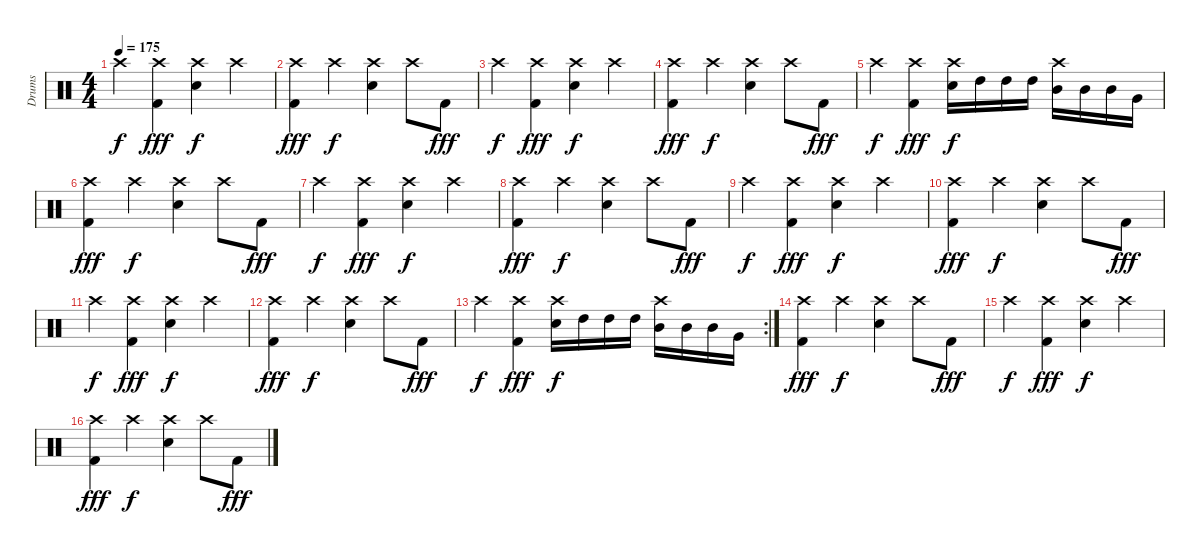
\track ("Drums" "Drums") {instrument percussion}
\staff {score}
\articulation defaults
\ts (4 4)
\tempo 175
\clef neutral
\ks c "Crash high (hit)".4{dy f}
("Crash high (hit)" "Kick (hit) 2").4{dy fff} ("Crash high (hit)" "Electric Snare (hit)").4{dy f} "Crash high (hit)".4 |
("Crash high (hit)" "Kick (hit) 2").4{dy fff} "Crash high (hit)".4{dy f} ("Crash high (hit)" "Electric Snare (hit)").4 "Crash high (hit)".8 "Kick (hit) 2".8{dy fff} |
"Crash high (hit)".4{dy f} ("Crash high (hit)" "Kick (hit) 2").4{dy fff} ("Crash high (hit)" "Electric Snare (hit)").4{dy f} "Crash high (hit)".4 |
("Crash high (hit)" "Kick (hit) 2").4{dy fff} "Crash high (hit)".4{dy f} ("Crash high (hit)" "Electric Snare (hit)").4 "Crash high (hit)".8 "Kick (hit) 2".8{dy fff} |
"Crash high (hit)".4{dy f} ("Crash high (hit)" "Kick (hit) 2").4{dy fff} ("Crash high (hit)" "Electric Snare (hit)").16{dy f} "High Tom (hit)".16 "High Tom (hit)".16 "High Tom (hit)".16 ("Crash high (hit)" "Mid Tom (hit)").16 "Mid Tom (hit)".16 "Mid Tom (hit)".16 "Very Low Tom (hit)".16 |
("Crash high (hit)" "Kick (hit) 2").4{dy fff} "Crash high (hit)".4{dy f} ("Crash high (hit)" "Electric Snare (hit)").4 "Crash high (hit)".8 "Kick (hit) 2".8{dy fff} |
"Crash high (hit)".4{dy f} ("Crash high (hit)" "Kick (hit) 2").4{dy fff} ("Crash high (hit)" "Electric Snare (hit)").4{dy f} "Crash high (hit)".4 |
("Crash high (hit)" "Kick (hit) 2").4{dy fff} "Crash high (hit)".4{dy f} ("Crash high (hit)" "Electric Snare (hit)").4 "Crash high (hit)".8 "Kick (hit) 2".8{dy fff} |
"Crash high (hit)".4{dy f} ("Crash high (hit)" "Kick (hit) 2").4{dy fff} ("Crash high (hit)" "Electric Snare (hit)").4{dy f} "Crash high (hit)".4 |
("Crash high (hit)" "Kick (hit) 2").4{dy fff} "Crash high (hit)".4{dy f} ("Crash high (hit)" "Electric Snare (hit)").4 "Crash high (hit)".8 "Kick (hit) 2".8{dy fff} |
"Crash high (hit)".4{dy f} ("Crash high (hit)" "Kick (hit) 2").4{dy fff} ("Crash high (hit)" "Electric Snare (hit)").4{dy f} "Crash high (hit)".4 |
("Crash high (hit)" "Kick (hit) 2").4{dy fff} "Crash high (hit)".4{dy f} ("Crash high (hit)" "Electric Snare (hit)").4 "Crash high (hit)".8 "Kick (hit) 2".8{dy fff} |
\rc 2 "Crash high (hit)".4{dy f}
("Crash high (hit)" "Kick (hit) 2").4{dy fff} ("Crash high (hit)" "Electric Snare (hit)").16{dy f} "High Tom (hit)".16 "High Tom (hit)".16 "High Tom (hit)".16 ("Crash high (hit)" "Mid Tom (hit)").16 "Mid Tom (hit)".16 "Mid Tom (hit)".16 "Very Low Tom (hit)".16 |
("Crash high (hit)" "Kick (hit) 2").4{dy fff} "Crash high (hit)".4{dy f} ("Crash high (hit)" "Electric Snare (hit)").4 "Crash high (hit)".8 "Kick (hit) 2".8{dy fff} |
"Crash high (hit)".4{dy f} ("Crash high (hit)" "Kick (hit) 2").4{dy fff} ("Crash high (hit)" "Electric Snare (hit)").4{dy f} "Crash high (hit)".4 |
("Crash high (hit)" "Kick (hit) 2").4{dy fff} "Crash high (hit)".4{dy f} ("Crash high (hit)" "Electric Snare (hit)").4 "Crash high (hit)".8 "Kick (hit) 2".8{dy fff}
